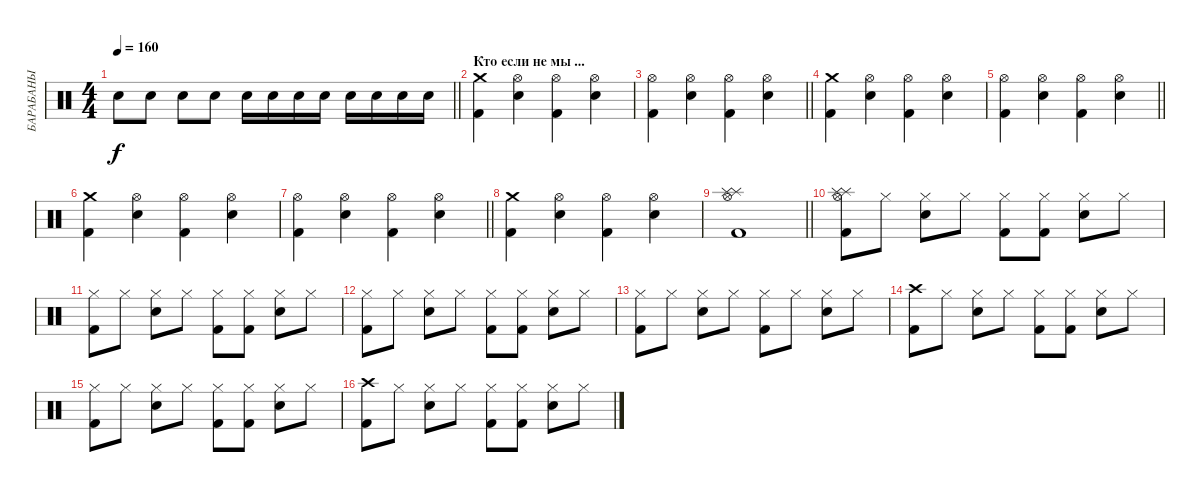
\track ("БАРАБАНЫ" "БАРАБАНЫ") {instrument percussion}
\staff {score}
\articulation defaults
\ts (4 4)
\tempo 160
\clef neutral
\barLineRight lightlight
\ks c "Snare (hit) 2".8{dy f} "Snare (hit) 2".8 "Snare (hit) 2".8 "Snare (hit) 2".8 "Snare (hit) 2".16 "Snare (hit) 2".16 "Snare (hit) 2".16 "Snare (hit) 2".16 "Snare (hit) 2".16 "Snare (hit) 2".16 "Snare (hit) 2".16 "Snare (hit) 2".16
|
\section ("" "Кто если не мы ...")
("Crash medium (hit)" "Kick (hit) 2").4 ("Hi-Hat (open)" "Snare (hit) 2").4 ("Hi-Hat (open)" "Kick (hit) 2").4 ("Hi-Hat (open)" "Snare (hit) 2").4 |
\barLineRight lightlight
("Hi-Hat (open)" "Kick (hit) 2").4 ("Hi-Hat (open)" "Snare (hit) 2").4 ("Hi-Hat (open)" "Kick (hit) 2").4 ("Hi-Hat (open)" "Snare (hit) 2").4 |
("Crash medium (hit)" "Kick (hit) 2").4 ("Hi-Hat (open)" "Snare (hit) 2").4 ("Hi-Hat (open)" "Kick (hit) 2").4 ("Hi-Hat (open)" "Snare (hit) 2").4 |
\barLineRight lightlight
("Hi-Hat (open)" "Kick (hit) 2").4 ("Hi-Hat (open)" "Snare (hit) 2").4 ("Hi-Hat (open)" "Kick (hit) 2").4 ("Hi-Hat (open)" "Snare (hit) 2").4 |
("Crash medium (hit)" "Kick (hit) 2").4 ("Hi-Hat (open)" "Snare (hit) 2").4 ("Hi-Hat (open)" "Kick (hit) 2").4 ("Hi-Hat (open)" "Snare (hit) 2").4 |
\barLineRight lightlight
("Hi-Hat (open)" "Kick (hit) 2").4 ("Hi-Hat (open)" "Snare (hit) 2").4 ("Hi-Hat (open)" "Kick (hit) 2").4 ("Hi-Hat (open)" "Snare (hit) 2").4 |
("Crash medium (hit)" "Kick (hit) 2").4 ("Hi-Hat (open)" "Snare (hit) 2").4 ("Hi-Hat (open)" "Kick (hit) 2").4 ("Hi-Hat (open)" "Snare (hit) 2").4 |
\barLineRight lightlight
("Hi-Hat (open)" "Kick (hit) 2" "Splash (hit)" "Splash (hit)").1 |
("Hi-Hat (open)" "Kick (hit) 2" "Splash (hit)" "Splash (hit)").8 "Hi-Hat (closed)".8 ("Hi-Hat (closed)" "Electric Snare (hit)").8 "Hi-Hat (closed)".8 ("Hi-Hat (closed)" "Kick (hit) 2").8 ("Hi-Hat (closed)" "Kick (hit) 2").8 ("Hi-Hat (closed)" "Electric Snare (hit)").8 "Hi-Hat (closed)".8 |
("Hi-Hat (closed)" "Kick (hit) 2").8 "Hi-Hat (closed)".8 ("Hi-Hat (closed)" "Electric Snare (hit)").8 "Hi-Hat (closed)".8 ("Hi-Hat (closed)" "Kick (hit) 2").8 ("Hi-Hat (closed)" "Kick (hit) 2").8 ("Hi-Hat (closed)" "Electric Snare (hit)").8 "Hi-Hat (closed)".8 |
("Hi-Hat (closed)" "Kick (hit) 2").8 "Hi-Hat (closed)".8 ("Hi-Hat (closed)" "Electric Snare (hit)").8 "Hi-Hat (closed)".8 ("Hi-Hat (closed)" "Kick (hit) 2").8 ("Hi-Hat (closed)" "Kick (hit) 2").8 ("Hi-Hat (closed)" "Electric Snare (hit)").8 "Hi-Hat (closed)".8 |
("Hi-Hat (closed)" "Kick (hit) 2").8 "Hi-Hat (closed)".8 ("Hi-Hat (closed)" "Electric Snare (hit)").8 "Hi-Hat (closed)".8 ("Hi-Hat (closed)" "Kick (hit) 2").8 "Hi-Hat (closed)".8 ("Hi-Hat (closed)" "Electric Snare (hit)").8 "Hi-Hat (closed)".8 |
("Crash high (hit)" "Kick (hit) 2").8 "Hi-Hat (closed)".8 ("Hi-Hat (closed)" "Electric Snare (hit)").8 "Hi-Hat (closed)".8 ("Hi-Hat (closed)" "Kick (hit) 2").8 ("Hi-Hat (closed)" "Kick (hit) 2").8 ("Hi-Hat (closed)" "Electric Snare (hit)").8 "Hi-Hat (closed)".8 |
("Hi-Hat (closed)" "Kick (hit) 2").8 "Hi-Hat (closed)".8 ("Hi-Hat (closed)" "Electric Snare (hit)").8 "Hi-Hat (closed)".8 ("Hi-Hat (closed)" "Kick (hit) 2").8 ("Hi-Hat (closed)" "Kick (hit) 2").8 ("Hi-Hat (closed)" "Electric Snare (hit)").8 "Hi-Hat (closed)".8 |
("Crash high (hit)" "Kick (hit) 2").8 "Hi-Hat (closed)".8 ("Hi-Hat (closed)" "Electric Snare (hit)").8 "Hi-Hat (closed)".8 ("Hi-Hat (closed)" "Kick (hit) 2").8 ("Hi-Hat (closed)" "Kick (hit) 2").8 ("Hi-Hat (closed)" "Electric Snare (hit)").8 "Hi-Hat (closed)".8
